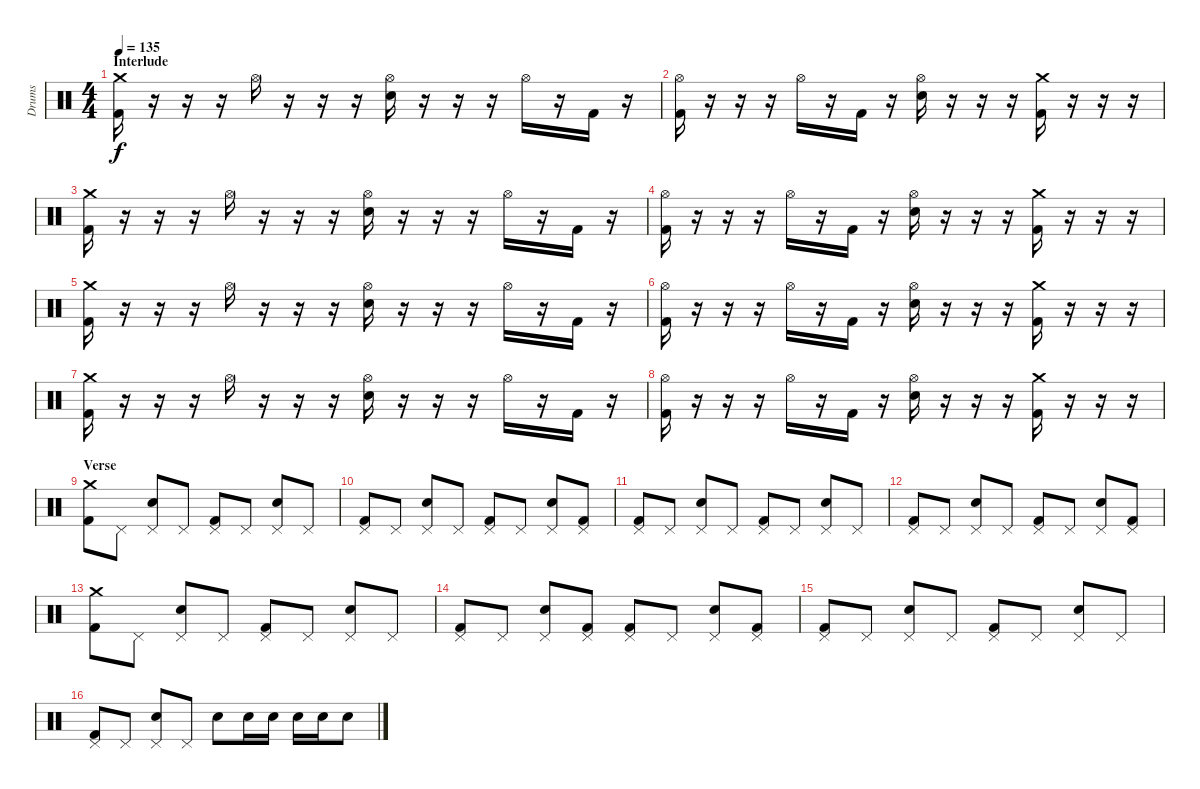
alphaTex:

\track ("Drums" "Drums") {instrument percussion}
\staff {score}
\articulation defaults
\ts (4 4)
\section ("" "Interlude")
\tempo 135
\clef neutral
\ks c
("Crash medium (hit)" "Kick (hit) 2").16{dy f} r.16 r.16 r.16 "Hi-Hat (open)".16 r.16 r.16 r.16 ("Hi-Hat (open)" "Electric Snare (hit)").16 r.16 r.16 r.16 "Hi-Hat (open)".16 r.16 "Kick (hit) 2".16 r.16 |
("Hi-Hat (open)" "Kick (hit) 2").16 r.16 r.16 r.16 "Hi-Hat (open)".16 r.16 "Kick (hit) 2".16 r.16 ("Hi-Hat (open)" "Electric Snare (hit)").16 r.16 r.16 r.16 ("Crash medium (hit)" "Kick (hit) 2").16 r.16 r.16 r.16 |
("Crash medium (hit)" "Kick (hit) 2").16 r.16 r.16 r.16 "Hi-Hat (open)".16 r.16 r.16 r.16 ("Hi-Hat (open)" "Electric Snare (hit)").16 r.16 r.16 r.16 "Hi-Hat (open)".16 r.16 "Kick (hit) 2".16 r.16 |
("Hi-Hat (open)" "Kick (hit) 2").16 r.16 r.16 r.16 "Hi-Hat (open)".16 r.16 "Kick (hit) 2".16 r.16 ("Hi-Hat (open)" "Electric Snare (hit)").16 r.16 r.16 r.16 ("Crash medium (hit)" "Kick (hit) 2").16 r.16 r.16 r.16 |
("Crash medium (hit)" "Kick (hit) 2").16 r.16 r.16 r.16 "Hi-Hat (open)".16 r.16 r.16 r.16 ("Hi-Hat (open)" "Electric Snare (hit)").16 r.16 r.16 r.16 "Hi-Hat (open)".16 r.16 "Kick (hit) 2".16 r.16 |
("Hi-Hat (open)" "Kick (hit) 2").16 r.16 r.16 r.16 "Hi-Hat (open)".16 r.16 "Kick (hit) 2".16 r.16 ("Hi-Hat (open)" "Electric Snare (hit)").16 r.16 r.16 r.16 ("Crash medium (hit)" "Kick (hit) 2").16 r.16 r.16 r.16 |
("Crash medium (hit)" "Kick (hit) 2").16 r.16 r.16 r.16 "Hi-Hat (open)".16 r.16 r.16 r.16 ("Hi-Hat (open)" "Electric Snare (hit)").16 r.16 r.16 r.16 "Hi-Hat (open)".16 r.16 "Kick (hit) 2".16 r.16 |
("Hi-Hat (open)" "Kick (hit) 2").16 r.16 r.16 r.16 "Hi-Hat (open)".16 r.16 "Kick (hit) 2".16 r.16 ("Hi-Hat (open)" "Electric Snare (hit)").16 r.16 r.16 r.16 ("Crash medium (hit)" "Kick (hit) 2").16 r.16 r.16 r.16 |
\section ("" "Verse")
("Crash medium (hit)" "Kick (hit) 2").8 "Pedal Hi-Hat (hit)".8 ("Pedal Hi-Hat (hit)" "Electric Snare (hit)").8 "Pedal Hi-Hat (hit)".8 ("Pedal Hi-Hat (hit)" "Kick (hit) 2").8 "Pedal Hi-Hat (hit)".8 ("Pedal Hi-Hat (hit)" "Electric Snare (hit)").8 "Pedal Hi-Hat (hit)".8 |
("Pedal Hi-Hat (hit)" "Kick (hit) 2").8 "Pedal Hi-Hat (hit)".8 ("Pedal Hi-Hat (hit)" "Electric Snare (hit)").8 "Pedal Hi-Hat (hit)".8 ("Pedal Hi-Hat (hit)" "Kick (hit) 2").8 "Pedal Hi-Hat (hit)".8 ("Pedal Hi-Hat (hit)" "Electric Snare (hit)").8 ("Pedal Hi-Hat (hit)" "Kick (hit) 2").8 |
("Pedal Hi-Hat (hit)" "Kick (hit) 2").8 "Pedal Hi-Hat (hit)".8 ("Pedal Hi-Hat (hit)" "Electric Snare (hit)").8 "Pedal Hi-Hat (hit)".8 ("Pedal Hi-Hat (hit)" "Kick (hit) 2").8 "Pedal Hi-Hat (hit)".8 ("Pedal Hi-Hat (hit)" "Electric Snare (hit)").8 "Pedal Hi-Hat (hit)".8 |
("Pedal Hi-Hat (hit)" "Kick (hit) 2").8 "Pedal Hi-Hat (hit)".8 ("Pedal Hi-Hat (hit)" "Electric Snare (hit)").8 "Pedal Hi-Hat (hit)".8 ("Pedal Hi-Hat (hit)" "Kick (hit) 2").8 "Pedal Hi-Hat (hit)".8 ("Pedal Hi-Hat (hit)" "Electric Snare (hit)").8 ("Pedal Hi-Hat (hit)" "Kick (hit) 2").8 |
("Crash medium (hit)" "Kick (hit) 2").8 "Pedal Hi-Hat (hit)".8 ("Pedal Hi-Hat (hit)" "Electric Snare (hit)").8 "Pedal Hi-Hat (hit)".8 ("Pedal Hi-Hat (hit)" "Kick (hit) 2").8 "Pedal Hi-Hat (hit)".8 ("Pedal Hi-Hat (hit)" "Electric Snare (hit)").8 "Pedal Hi-Hat (hit)".8 |
("Pedal Hi-Hat (hit)" "Kick (hit) 2").8 "Pedal Hi-Hat (hit)".8 ("Pedal Hi-Hat (hit)" "Electric Snare (hit)").8 ("Pedal Hi-Hat (hit)" "Kick (hit) 2").8 ("Pedal Hi-Hat (hit)" "Kick (hit) 2").8 "Pedal Hi-Hat (hit)".8 ("Pedal Hi-Hat (hit)" "Electric Snare (hit)").8 ("Pedal Hi-Hat (hit)" "Kick (hit) 2").8 |
("Pedal Hi-Hat (hit)" "Kick (hit) 2").8 "Pedal Hi-Hat (hit)".8 ("Pedal Hi-Hat (hit)" "Electric Snare (hit)").8 "Pedal Hi-Hat (hit)".8 ("Pedal Hi-Hat (hit)" "Kick (hit) 2").8 "Pedal Hi-Hat (hit)".8 ("Pedal Hi-Hat (hit)" "Electric Snare (hit)").8 "Pedal Hi-Hat (hit)".8 |
("Pedal Hi-Hat (hit)" "Kick (hit) 2").8 "Pedal Hi-Hat (hit)".8 ("Pedal Hi-Hat (hit)" "Electric Snare (hit)").8 "Pedal Hi-Hat (hit)".8 "Electric Snare (hit)".8 "Electric Snare (hit)".16 "Electric Snare (hit)".16 "Electric Snare (hit)".16 "Electric Snare (hit)".16 "Electric Snare (hit)".8
